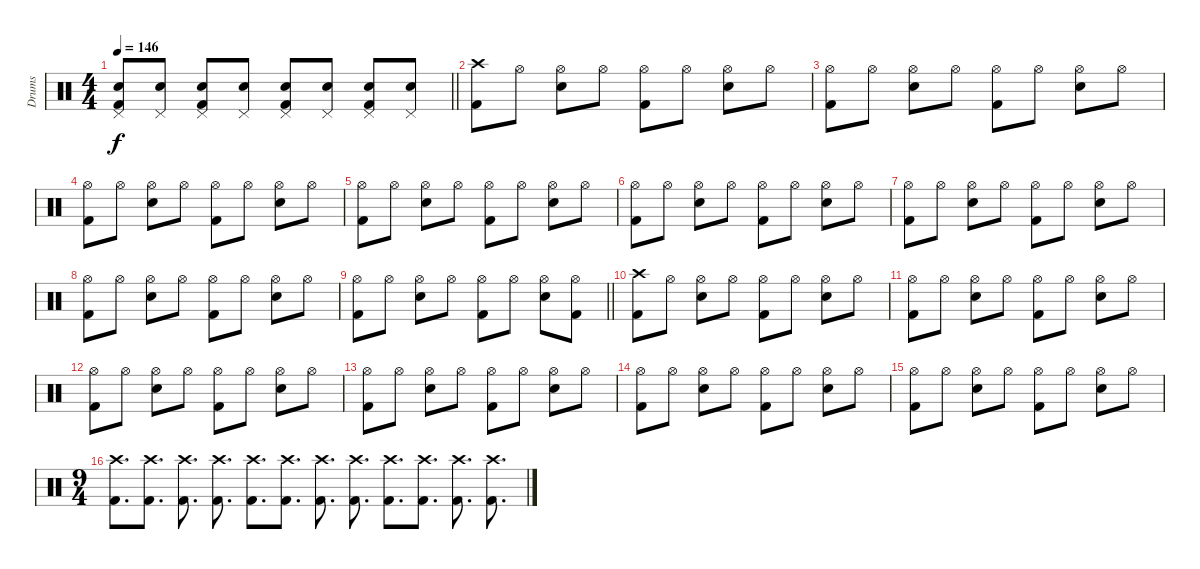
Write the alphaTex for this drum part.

\track ("Drums" "Drums") {instrument percussion}
\staff {score}
\articulation defaults
\ts (4 4)
\tempo 146
\clef neutral
\barLineRight lightlight
\ks c
("Pedal Hi-Hat (hit)" "Snare (hit) 2" "Kick (hit) 2").8{dy f} ("Pedal Hi-Hat (hit)" "Snare (hit) 2").8 ("Pedal Hi-Hat (hit)" "Snare (hit) 2" "Kick (hit) 2").8 ("Pedal Hi-Hat (hit)" "Snare (hit) 2").8 ("Pedal Hi-Hat (hit)" "Snare (hit) 2" "Kick (hit) 2").8 ("Pedal Hi-Hat (hit)" "Snare (hit) 2").8 ("Pedal Hi-Hat (hit)" "Snare (hit) 2" "Kick (hit) 2").8 ("Pedal Hi-Hat (hit)" "Snare (hit) 2").8 |
("Crash high (hit)" "Kick (hit) 2").8 "Hi-Hat (open)".8 ("Hi-Hat (open)" "Snare (hit) 2").8 "Hi-Hat (open)".8 ("Hi-Hat (open)" "Kick (hit) 2").8 "Hi-Hat (open)".8 ("Hi-Hat (open)" "Snare (hit) 2").8 "Hi-Hat (open)".8 |
("Hi-Hat (open)" "Kick (hit) 2").8 "Hi-Hat (open)".8 ("Hi-Hat (open)" "Snare (hit) 2").8 "Hi-Hat (open)".8 ("Hi-Hat (open)" "Kick (hit) 2").8 "Hi-Hat (open)".8 ("Hi-Hat (open)" "Snare (hit) 2").8 "Hi-Hat (open)".8 |
("Hi-Hat (open)" "Kick (hit) 2").8 "Hi-Hat (open)".8 ("Hi-Hat (open)" "Snare (hit) 2").8 "Hi-Hat (open)".8 ("Hi-Hat (open)" "Kick (hit) 2").8 "Hi-Hat (open)".8 ("Hi-Hat (open)" "Snare (hit) 2").8 "Hi-Hat (open)".8 |
("Hi-Hat (open)" "Kick (hit) 2").8 "Hi-Hat (open)".8 ("Hi-Hat (open)" "Snare (hit) 2").8 "Hi-Hat (open)".8 ("Hi-Hat (open)" "Kick (hit) 2").8 "Hi-Hat (open)".8 ("Hi-Hat (open)" "Snare (hit) 2").8 "Hi-Hat (open)".8 |
("Hi-Hat (open)" "Kick (hit) 2").8 "Hi-Hat (open)".8 ("Hi-Hat (open)" "Snare (hit) 2").8 "Hi-Hat (open)".8 ("Hi-Hat (open)" "Kick (hit) 2").8 "Hi-Hat (open)".8 ("Hi-Hat (open)" "Snare (hit) 2").8 "Hi-Hat (open)".8 |
("Hi-Hat (open)" "Kick (hit) 2").8 "Hi-Hat (open)".8 ("Hi-Hat (open)" "Snare (hit) 2").8 "Hi-Hat (open)".8 ("Hi-Hat (open)" "Kick (hit) 2").8 "Hi-Hat (open)".8 ("Hi-Hat (open)" "Snare (hit) 2").8 "Hi-Hat (open)".8 |
("Hi-Hat (open)" "Kick (hit) 2").8 "Hi-Hat (open)".8 ("Hi-Hat (open)" "Snare (hit) 2").8 "Hi-Hat (open)".8 ("Hi-Hat (open)" "Kick (hit) 2").8 "Hi-Hat (open)".8 ("Hi-Hat (open)" "Snare (hit) 2").8 "Hi-Hat (open)".8 |
\barLineRight lightlight
("Hi-Hat (open)" "Kick (hit) 2").8 "Hi-Hat (open)".8 ("Hi-Hat (open)" "Snare (hit) 2").8 "Hi-Hat (open)".8 ("Hi-Hat (open)" "Kick (hit) 2").8 "Hi-Hat (open)".8 ("Hi-Hat (open)" "Snare (hit) 2").8 ("Hi-Hat (open)" "Kick (hit) 2").8 |
("Crash high (hit)" "Kick (hit) 2").8 "Hi-Hat (open)".8 ("Hi-Hat (open)" "Snare (hit) 2").8 "Hi-Hat (open)".8 ("Hi-Hat (open)" "Kick (hit) 2").8 "Hi-Hat (open)".8 ("Hi-Hat (open)" "Snare (hit) 2").8 "Hi-Hat (open)".8 |
("Hi-Hat (open)" "Kick (hit) 2").8 "Hi-Hat (open)".8 ("Hi-Hat (open)" "Snare (hit) 2").8 "Hi-Hat (open)".8 ("Hi-Hat (open)" "Kick (hit) 2").8 "Hi-Hat (open)".8 ("Hi-Hat (open)" "Snare (hit) 2").8 "Hi-Hat (open)".8 |
("Hi-Hat (open)" "Kick (hit) 2").8 "Hi-Hat (open)".8 ("Hi-Hat (open)" "Snare (hit) 2").8 "Hi-Hat (open)".8 ("Hi-Hat (open)" "Kick (hit) 2").8 "Hi-Hat (open)".8 ("Hi-Hat (open)" "Snare (hit) 2").8 "Hi-Hat (open)".8 |
("Hi-Hat (open)" "Kick (hit) 2").8 "Hi-Hat (open)".8 ("Hi-Hat (open)" "Snare (hit) 2").8 "Hi-Hat (open)".8 ("Hi-Hat (open)" "Kick (hit) 2").8 "Hi-Hat (open)".8 ("Hi-Hat (open)" "Snare (hit) 2").8 "Hi-Hat (open)".8 |
("Hi-Hat (open)" "Kick (hit) 2").8 "Hi-Hat (open)".8 ("Hi-Hat (open)" "Snare (hit) 2").8 "Hi-Hat (open)".8 ("Hi-Hat (open)" "Kick (hit) 2").8 "Hi-Hat (open)".8 ("Hi-Hat (open)" "Snare (hit) 2").8 "Hi-Hat (open)".8 |
("Hi-Hat (open)" "Kick (hit) 2").8 "Hi-Hat (open)".8 ("Hi-Hat (open)" "Snare (hit) 2").8 "Hi-Hat (open)".8 ("Hi-Hat (open)" "Kick (hit) 2").8 "Hi-Hat (open)".8 ("Hi-Hat (open)" "Snare (hit) 2").8 "Hi-Hat (open)".8 |
\ts (9 4)
("Crash high (hit)" "Kick (hit) 2").8{d} ("Crash high (hit)" "Kick (hit) 2").8{d} ("Crash high (hit)" "Kick (hit) 2").8{d} ("Crash high (hit)" "Kick (hit) 2").8{d} ("Crash high (hit)" "Kick (hit) 2").8{d} ("Crash high (hit)" "Kick (hit) 2").8{d} ("Crash high (hit)" "Kick (hit) 2").8{d} ("Crash high (hit)" "Kick (hit) 2").8{d} ("Crash high (hit)" "Kick (hit) 2").8{d} ("Crash high (hit)" "Kick (hit) 2").8{d} ("Crash high (hit)" "Kick (hit) 2").8{d} ("Crash high (hit)" "Kick (hit) 2").8{d}
